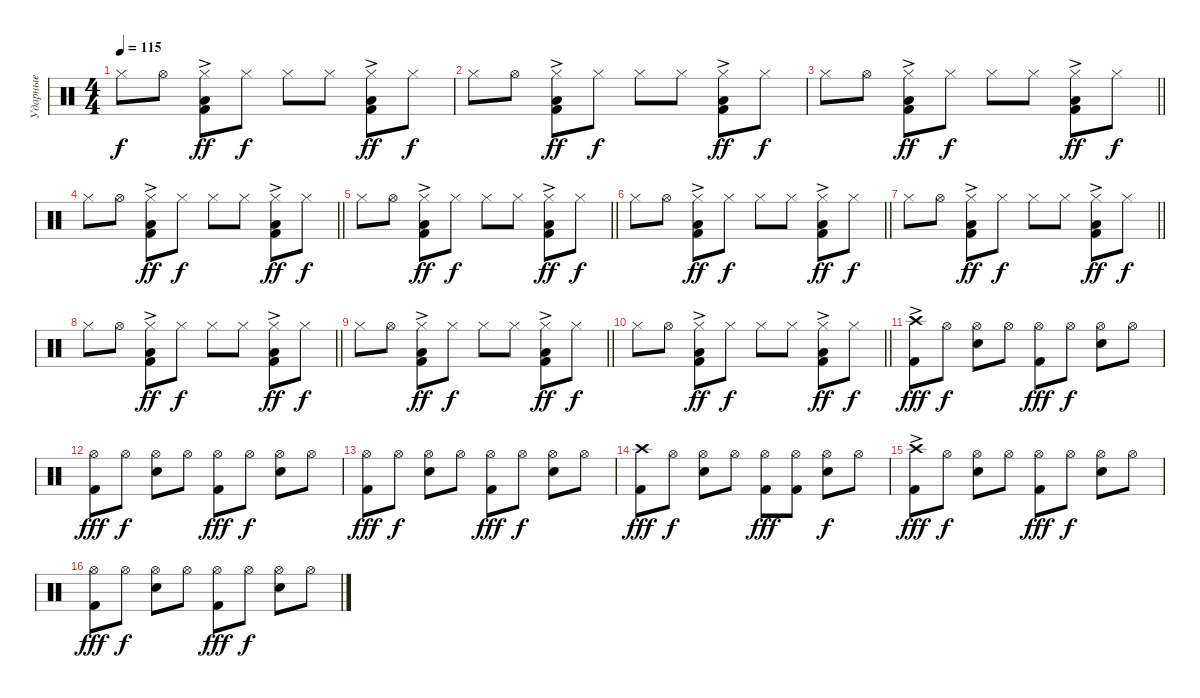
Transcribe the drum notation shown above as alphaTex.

\track ("Ударные" "Ударные") {instrument percussion}
\staff {score}
\articulation defaults
\ts (4 4)
\tempo 115
\clef neutral
\ks c "Hi-Hat (closed)".8{dy f} "Hi-Hat (open)".8
("Kick (hit) 2" "Low Floor Tom (hit)"{ac} "Hi-Hat (closed)").8{dy ff} "Hi-Hat (closed)".8{dy f} "Hi-Hat (closed)".8 "Hi-Hat (closed)".8 ("Kick (hit) 2" "Low Floor Tom (hit)"{ac} "Hi-Hat (closed)").8{dy ff} "Hi-Hat (closed)".8{dy f} |
"Hi-Hat (closed)".8 "Hi-Hat (open)".8 ("Kick (hit) 2" "Low Floor Tom (hit)"{ac} "Hi-Hat (closed)").8{dy ff} "Hi-Hat (closed)".8{dy f} "Hi-Hat (closed)".8 "Hi-Hat (closed)".8 ("Kick (hit) 2" "Low Floor Tom (hit)"{ac} "Hi-Hat (closed)").8{dy ff} "Hi-Hat (closed)".8{dy f} |
\barLineRight lightlight "Hi-Hat (closed)".8 "Hi-Hat (open)".8
("Kick (hit) 2" "Low Floor Tom (hit)"{ac} "Hi-Hat (closed)").8{dy ff} "Hi-Hat (closed)".8{dy f} "Hi-Hat (closed)".8 "Hi-Hat (closed)".8 ("Kick (hit) 2" "Low Floor Tom (hit)"{ac} "Hi-Hat (closed)").8{dy ff} "Hi-Hat (closed)".8{dy f} |
\barLineRight lightlight "Hi-Hat (closed)".8 "Hi-Hat (open)".8
("Kick (hit) 2" "Low Floor Tom (hit)"{ac} "Hi-Hat (closed)").8{dy ff} "Hi-Hat (closed)".8{dy f} "Hi-Hat (closed)".8 "Hi-Hat (closed)".8 ("Kick (hit) 2" "Low Floor Tom (hit)"{ac} "Hi-Hat (closed)").8{dy ff} "Hi-Hat (closed)".8{dy f} |
\barLineRight lightlight "Hi-Hat (closed)".8 "Hi-Hat (open)".8
("Kick (hit) 2" "Low Floor Tom (hit)"{ac} "Hi-Hat (closed)").8{dy ff} "Hi-Hat (closed)".8{dy f} "Hi-Hat (closed)".8 "Hi-Hat (closed)".8 ("Kick (hit) 2" "Low Floor Tom (hit)"{ac} "Hi-Hat (closed)").8{dy ff} "Hi-Hat (closed)".8{dy f} |
\barLineRight lightlight "Hi-Hat (closed)".8 "Hi-Hat (open)".8
("Kick (hit) 2" "Low Floor Tom (hit)"{ac} "Hi-Hat (closed)").8{dy ff} "Hi-Hat (closed)".8{dy f} "Hi-Hat (closed)".8 "Hi-Hat (closed)".8 ("Kick (hit) 2" "Low Floor Tom (hit)"{ac} "Hi-Hat (closed)").8{dy ff} "Hi-Hat (closed)".8{dy f} |
\barLineRight lightlight "Hi-Hat (closed)".8 "Hi-Hat (open)".8
("Kick (hit) 2" "Low Floor Tom (hit)"{ac} "Hi-Hat (closed)").8{dy ff} "Hi-Hat (closed)".8{dy f} "Hi-Hat (closed)".8 "Hi-Hat (closed)".8 ("Kick (hit) 2" "Low Floor Tom (hit)"{ac} "Hi-Hat (closed)").8{dy ff} "Hi-Hat (closed)".8{dy f} |
\barLineRight lightlight "Hi-Hat (closed)".8 "Hi-Hat (open)".8
("Kick (hit) 2" "Low Floor Tom (hit)"{ac} "Hi-Hat (closed)").8{dy ff} "Hi-Hat (closed)".8{dy f} "Hi-Hat (closed)".8 "Hi-Hat (closed)".8 ("Kick (hit) 2" "Low Floor Tom (hit)"{ac} "Hi-Hat (closed)").8{dy ff} "Hi-Hat (closed)".8{dy f} |
\barLineRight lightlight "Hi-Hat (closed)".8 "Hi-Hat (open)".8
("Kick (hit) 2" "Low Floor Tom (hit)"{ac} "Hi-Hat (closed)").8{dy ff} "Hi-Hat (closed)".8{dy f} "Hi-Hat (closed)".8 "Hi-Hat (closed)".8 ("Kick (hit) 2" "Low Floor Tom (hit)"{ac} "Hi-Hat (closed)").8{dy ff} "Hi-Hat (closed)".8{dy f} |
\barLineRight lightlight "Hi-Hat (closed)".8 "Hi-Hat (open)".8
("Kick (hit) 2" "Low Floor Tom (hit)"{ac} "Hi-Hat (closed)").8{dy ff} "Hi-Hat (closed)".8{dy f} "Hi-Hat (closed)".8 "Hi-Hat (closed)".8 ("Kick (hit) 2" "Low Floor Tom (hit)"{ac} "Hi-Hat (closed)").8{dy ff} "Hi-Hat (closed)".8{dy f} |
("Kick (hit) 2" "Crash high (hit)"{ac}).8{dy fff} "Hi-Hat (open)".8{dy f} ("Snare (hit) 2" "Hi-Hat (open)").8 "Hi-Hat (open)".8 ("Kick (hit) 2" "Hi-Hat (open)").8{dy fff} "Hi-Hat (open)".8{dy f} ("Snare (hit) 2" "Hi-Hat (open)").8 "Hi-Hat (open)".8 |
("Kick (hit) 2" "Hi-Hat (open)").8{dy fff} "Hi-Hat (open)".8{dy f} ("Snare (hit) 2" "Hi-Hat (open)").8 "Hi-Hat (open)".8 ("Kick (hit) 2" "Hi-Hat (open)").8{dy fff} "Hi-Hat (open)".8{dy f} ("Snare (hit) 2" "Hi-Hat (open)").8 "Hi-Hat (open)".8 |
("Kick (hit) 2" "Hi-Hat (open)").8{dy fff} "Hi-Hat (open)".8{dy f} ("Snare (hit) 2" "Hi-Hat (open)").8 "Hi-Hat (open)".8 ("Kick (hit) 2" "Hi-Hat (open)").8{dy fff} "Hi-Hat (open)".8{dy f} ("Snare (hit) 2" "Hi-Hat (open)").8 "Hi-Hat (open)".8 |
("Kick (hit) 2" "Crash high (hit)").8{dy fff} "Hi-Hat (open)".8{dy f} ("Snare (hit) 2" "Hi-Hat (open)").8 "Hi-Hat (open)".8 ("Kick (hit) 2" "Hi-Hat (open)").8{dy fff} ("Kick (hit) 2" "Hi-Hat (open)").8 ("Snare (hit) 2" "Hi-Hat (open)").8{dy f} "Hi-Hat (open)".8 |
("Kick (hit) 2" "Crash high (hit)"{ac}).8{dy fff} "Hi-Hat (open)".8{dy f} ("Snare (hit) 2" "Hi-Hat (open)").8 "Hi-Hat (open)".8 ("Kick (hit) 2" "Hi-Hat (open)").8{dy fff} "Hi-Hat (open)".8{dy f} ("Snare (hit) 2" "Hi-Hat (open)").8 "Hi-Hat (open)".8 |
("Kick (hit) 2" "Hi-Hat (open)").8{dy fff} "Hi-Hat (open)".8{dy f} ("Snare (hit) 2" "Hi-Hat (open)").8 "Hi-Hat (open)".8 ("Kick (hit) 2" "Hi-Hat (open)").8{dy fff} "Hi-Hat (open)".8{dy f} ("Snare (hit) 2" "Hi-Hat (open)").8 "Hi-Hat (open)".8
